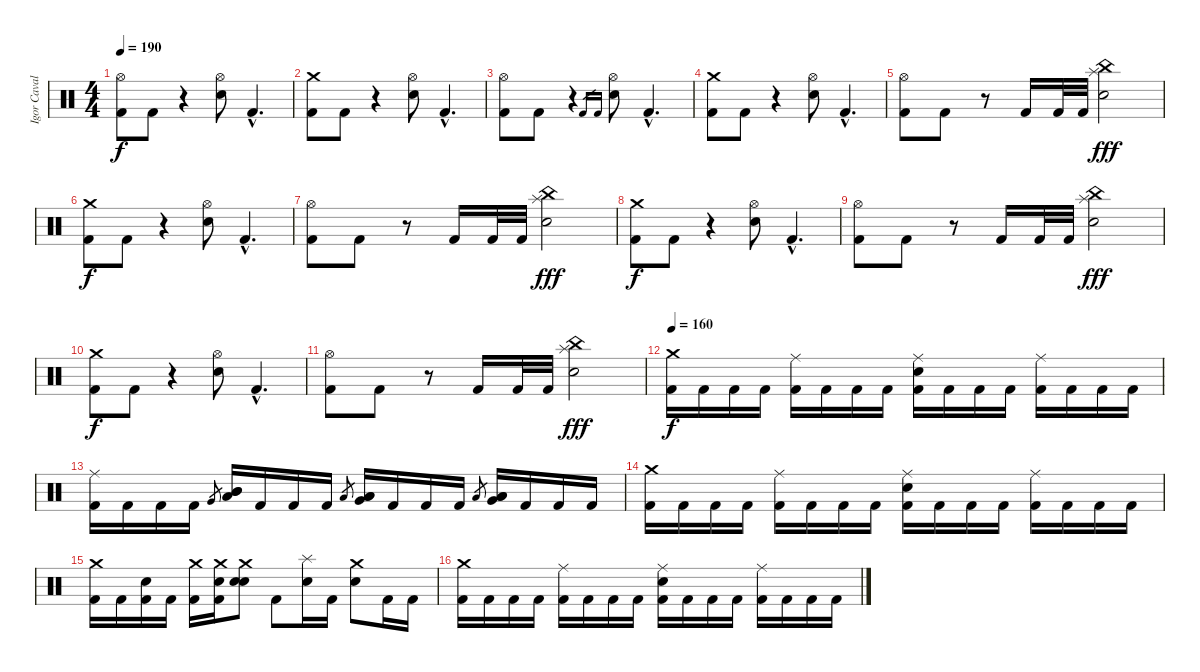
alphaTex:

\track ("Igor Cavalera" "Igor Caval") {instrument percussion}
\staff {score}
\articulation defaults
\ts (4 4)
\tempo 190
\clef neutral
\ks c
("Kick (hit) 2" "Hi-Hat (open)").8{dy f} "Kick (hit) 2".8 r.4 ("Electric Snare (hit)" "Hi-Hat (open)").8 "Kick (hit) 2"{hac}.4{d} |
("Kick (hit) 2" "Crash medium (hit)").8 "Kick (hit) 2".8 r.4 ("Electric Snare (hit)" "Hi-Hat (open)").8 "Kick (hit) 2"{hac}.4{d} |
("Kick (hit) 2" "Hi-Hat (open)").8 "Kick (hit) 2".8 r.4 "Kick (hit) 2".16{gr} "Kick (hit) 2".16{gr} ("Electric Snare (hit)" "Hi-Hat (open)").8 "Kick (hit) 2"{hac}.4{d} |
("Kick (hit) 2" "Crash medium (hit)").8 "Kick (hit) 2".8 r.4 ("Electric Snare (hit)" "Hi-Hat (open)").8 "Kick (hit) 2"{hac}.4{d} |
("Kick (hit) 2" "Hi-Hat (open)").8 "Kick (hit) 2".8 r.8 "Kick (hit) 2".16 "Kick (hit) 2".32 "Kick (hit) 2".32 ("China (hit)" "Splash (hit)" "Electric Snare (hit)").2{dy fff} |
("Kick (hit) 2" "Crash medium (hit)").8{dy f} "Kick (hit) 2".8 r.4 ("Electric Snare (hit)" "Hi-Hat (open)").8 "Kick (hit) 2"{hac}.4{d} |
("Kick (hit) 2" "Hi-Hat (open)").8 "Kick (hit) 2".8 r.8 "Kick (hit) 2".16 "Kick (hit) 2".32 "Kick (hit) 2".32 ("China (hit)" "Splash (hit)" "Electric Snare (hit)").2{dy fff} |
("Kick (hit) 2" "Crash medium (hit)").8{dy f} "Kick (hit) 2".8 r.4 ("Electric Snare (hit)" "Hi-Hat (open)").8 "Kick (hit) 2"{hac}.4{d} |
("Kick (hit) 2" "Hi-Hat (open)").8 "Kick (hit) 2".8 r.8 "Kick (hit) 2".16 "Kick (hit) 2".32 "Kick (hit) 2".32 ("China (hit)" "Splash (hit)" "Electric Snare (hit)").2{dy fff} |
("Kick (hit) 2" "Crash medium (hit)").8{dy f} "Kick (hit) 2".8 r.4 ("Electric Snare (hit)" "Hi-Hat (open)").8 "Kick (hit) 2"{hac}.4{d} |
("Kick (hit) 2" "Hi-Hat (open)").8 "Kick (hit) 2".8 r.8 "Kick (hit) 2".16 "Kick (hit) 2".32 "Kick (hit) 2".32 ("China (hit)" "Splash (hit)" "Electric Snare (hit)").2{dy fff} |
\tempo 160
("Crash medium (hit)" "Kick (hit) 2").16{dy f} "Kick (hit) 2".16 "Kick (hit) 2".16 "Kick (hit) 2".16 ("Ride (middle)" "Kick (hit) 2").16 "Kick (hit) 2".16 "Kick (hit) 2".16 "Kick (hit) 2".16 ("Ride (middle)" "Kick (hit) 2" "Electric Snare (hit)").16 "Kick (hit) 2".16 "Kick (hit) 2".16 "Kick (hit) 2".16 ("Ride (middle)" "Kick (hit) 2").16 "Kick (hit) 2".16 "Kick (hit) 2".16 "Kick (hit) 2".16 |
("Ride (middle)" "Kick (hit) 2").16 "Kick (hit) 2".16 "Kick (hit) 2".16 "Kick (hit) 2".16 "Very Low Tom (hit)".8{gr} ("Mid Tom (hit)" "Mid Tom (hit)" "Low Tom (hit)").16 "Kick (hit) 2".16 "Kick (hit) 2".16 "Kick (hit) 2".16 "Low Floor Tom (hit)".8{gr} ("Low Tom (hit)" "Low Tom (hit)" "Very Low Tom (hit)").16 "Kick (hit) 2".16 "Kick (hit) 2".16 "Kick (hit) 2".16 "Low Floor Tom (hit)".8{gr} ("Low Tom (hit)" "Very Low Tom (hit)" "Low Floor Tom (hit)").16 "Kick (hit) 2".16 "Kick (hit) 2".16 "Kick (hit) 2".16 |
("Crash medium (hit)" "Kick (hit) 2").16 "Kick (hit) 2".16 "Kick (hit) 2".16 "Kick (hit) 2".16 ("Ride (middle)" "Kick (hit) 2").16 "Kick (hit) 2".16 "Kick (hit) 2".16 "Kick (hit) 2".16 ("Ride (middle)" "Kick (hit) 2" "Electric Snare (hit)").16 "Kick (hit) 2".16 "Kick (hit) 2".16 "Kick (hit) 2".16 ("Ride (middle)" "Kick (hit) 2").16 "Kick (hit) 2".16 "Kick (hit) 2".16 "Kick (hit) 2".16 |
("Crash medium (hit)" "Kick (hit) 2").16 "Kick (hit) 2".16 ("Kick (hit) 2" "Electric Snare (hit)").16 "Kick (hit) 2".16 ("Crash medium (hit)" "Kick (hit) 2").16 ("Crash medium (hit)" "Kick (hit) 2" "Electric Snare (hit)").16 ("Crash medium (hit)" "Electric Snare (hit)" "Electric Snare (hit)").8 "Kick (hit) 2".8 ("Splash (hit)" "Electric Snare (hit)").16 "Kick (hit) 2".16 ("Crash medium (hit)" "Electric Snare (hit)").8 "Kick (hit) 2".16 "Kick (hit) 2".16 |
("Crash medium (hit)" "Kick (hit) 2").16 "Kick (hit) 2".16 "Kick (hit) 2".16 "Kick (hit) 2".16 ("Ride (middle)" "Kick (hit) 2").16 "Kick (hit) 2".16 "Kick (hit) 2".16 "Kick (hit) 2".16 ("Ride (middle)" "Kick (hit) 2" "Electric Snare (hit)").16 "Kick (hit) 2".16 "Kick (hit) 2".16 "Kick (hit) 2".16 ("Ride (middle)" "Kick (hit) 2").16 "Kick (hit) 2".16 "Kick (hit) 2".16 "Kick (hit) 2".16
